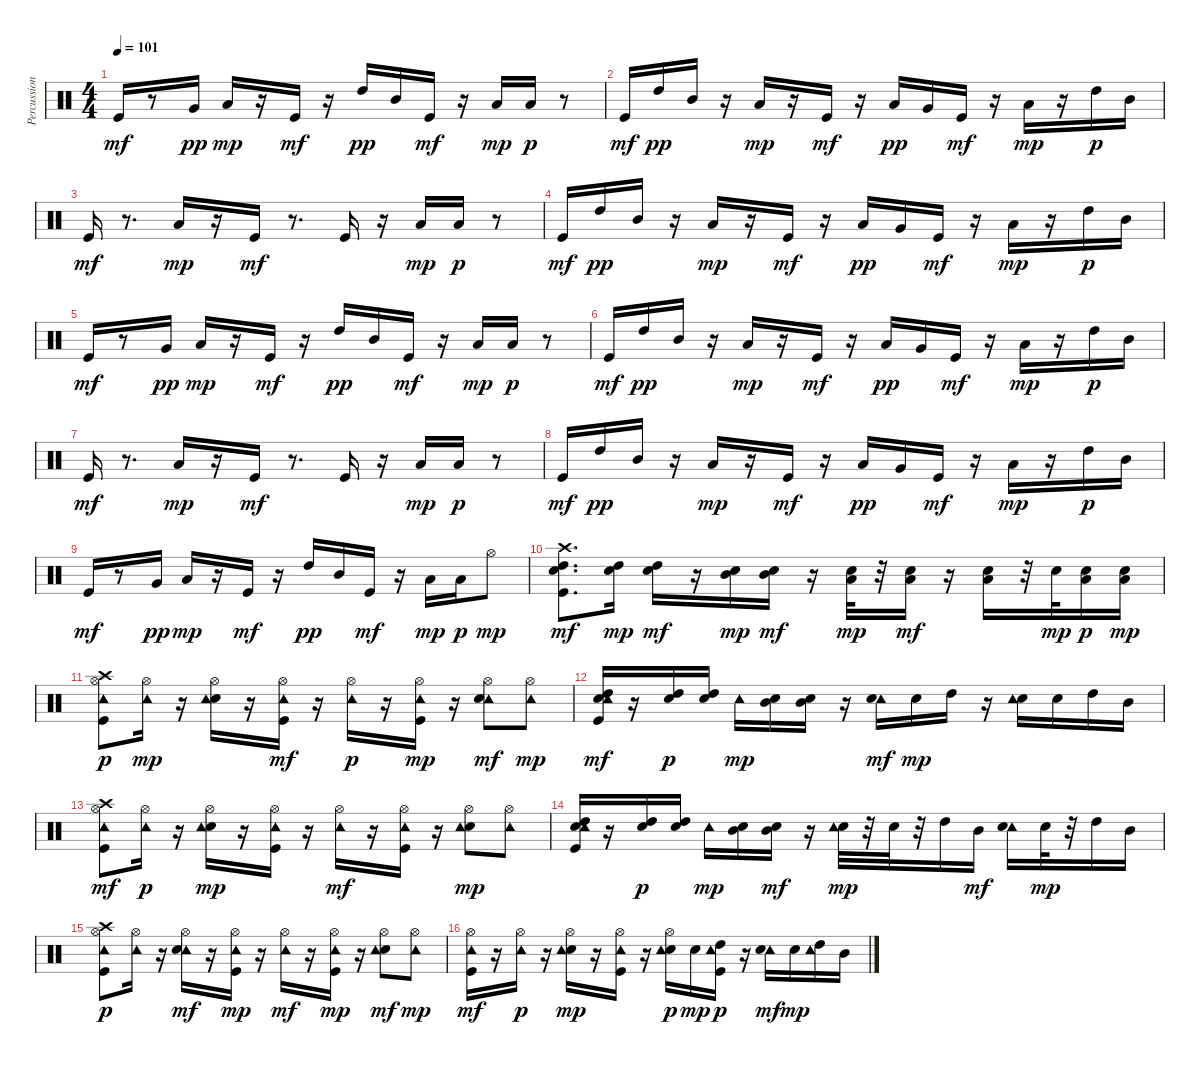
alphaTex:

\track ("Percussion" "Percussion") {instrument percussion}
\staff {score}
\articulation defaults
\ts (4 4)
\tempo 101
\clef neutral
\ks c "Kick (hit)".16{dy mf}
r.8 "Very Low Tom (hit)".16{dy pp} "Low Floor Tom (hit)".16{dy mp} r.16 "Kick (hit)".16{dy mf} r.16 "High Tom (hit)".16{dy pp} "Mid Tom (hit)".16 "Kick (hit)".16{dy mf} r.16 "Low Floor Tom (hit)".16{dy mp} "Low Floor Tom (hit)".16{dy p} r.8 |
"Kick (hit)".16{dy mf} "High Tom (hit)".16{dy pp} "Mid Tom (hit)".16 r.16 "Low Floor Tom (hit)".16{dy mp} r.16 "Kick (hit)".16{dy mf} r.16 "Low Tom (hit)".16{dy pp} "Very Low Tom (hit)".16 "Kick (hit)".16{dy mf} r.16 "Low Floor Tom (hit)".16{dy mp} r.16 "High Tom (hit)".16{dy p} "Mid Tom (hit)".16 |
"Kick (hit)".16{dy mf volume 9} r.8{d} "Low Floor Tom (hit)".16{dy mp} r.16 "Kick (hit)".16{dy mf} r.8{d} "Kick (hit)".16 r.16 "Low Floor Tom (hit)".16{dy mp} "Low Floor Tom (hit)".16{dy p} r.8 |
"Kick (hit)".16{dy mf} "High Tom (hit)".16{dy pp} "Mid Tom (hit)".16 r.16 "Low Floor Tom (hit)".16{dy mp} r.16 "Kick (hit)".16{dy mf} r.16 "Low Tom (hit)".16{dy pp} "Very Low Tom (hit)".16 "Kick (hit)".16{dy mf} r.16 "Low Floor Tom (hit)".16{dy mp} r.16 "High Tom (hit)".16{dy p} "Mid Tom (hit)".16 |
"Kick (hit)".16{dy mf} r.8 "Very Low Tom (hit)".16{dy pp} "Low Floor Tom (hit)".16{dy mp} r.16 "Kick (hit)".16{dy mf} r.16 "High Tom (hit)".16{dy pp} "Mid Tom (hit)".16 "Kick (hit)".16{dy mf} r.16 "Low Floor Tom (hit)".16{dy mp} "Low Floor Tom (hit)".16{dy p} r.8 |
"Kick (hit)".16{dy mf} "High Tom (hit)".16{dy pp} "Mid Tom (hit)".16 r.16 "Low Floor Tom (hit)".16{dy mp} r.16 "Kick (hit)".16{dy mf} r.16 "Low Tom (hit)".16{dy pp} "Very Low Tom (hit)".16 "Kick (hit)".16{dy mf} r.16 "Low Floor Tom (hit)".16{dy mp} r.16 "High Tom (hit)".16{dy p} "Mid Tom (hit)".16 |
"Kick (hit)".16{dy mf} r.8{d} "Low Floor Tom (hit)".16{dy mp} r.16 "Kick (hit)".16{dy mf} r.8{d} "Kick (hit)".16 r.16 "Low Floor Tom (hit)".16{dy mp} "Low Floor Tom (hit)".16{dy p} r.8 |
"Kick (hit)".16{dy mf} "High Tom (hit)".16{dy pp} "Mid Tom (hit)".16 r.16 "Low Floor Tom (hit)".16{dy mp} r.16 "Kick (hit)".16{dy mf} r.16 "Low Tom (hit)".16{dy pp} "Very Low Tom (hit)".16 "Kick (hit)".16{dy mf} r.16 "Low Floor Tom (hit)".16{dy mp} r.16 "High Tom (hit)".16{dy p} "Mid Tom (hit)".16 |
"Kick (hit)".16{dy mf} r.8 "Very Low Tom (hit)".16{dy pp} "Low Floor Tom (hit)".16{dy mp} r.16 "Kick (hit)".16{dy mf} r.16 "High Tom (hit)".16{dy pp} "Mid Tom (hit)".16 "Kick (hit)".16{dy mf} r.16 "Low Floor Tom (hit)".16{dy mp} "Low Floor Tom (hit)".16{dy p} "Hi-Hat (open)".8{dy mp volume 14} |
("Electric Snare (hit)" "High Tom (hit)" "Crash high (hit)" "Kick (hit)").8{d dy mf} ("Electric Snare (hit)" "High Tom (hit)").16{dy mp} ("High Tom (hit)" "Electric Snare (hit)").16{dy mf} r.16 ("Mid Tom (hit)" "Electric Snare (hit)").16{dy mp} ("Mid Tom (hit)" "Electric Snare (hit)").16{dy mf} r.16 ("Electric Snare (hit)" "Low Tom (hit)").32{dy mp} r.32 ("Low Tom (hit)" "Electric Snare (hit)").16{dy mf} r.16 ("Electric Snare (hit)" "Low Tom (hit)").16 r.32 "Electric Snare (hit)".32{dy mp} ("Electric Snare (hit)" "Low Tom (hit)").16{dy p} ("Electric Snare (hit)" "Low Tom (hit)").16{dy mp} |
("Kick (hit)" "Crash high (hit)" "Hi-Hat (open)" "Tambourine (hit)").8{dy p} ("Tambourine (hit)" "Hi-Hat (open)").16{dy mp} r.16 ("Electric Snare (hit)" "Hi-Hat (open)" "Tambourine (hit)").16 r.16 ("Hi-Hat (open)" "Tambourine (hit)" "Kick (hit)").16{dy mf} r.16 ("Hi-Hat (open)" "Tambourine (hit)").16{dy p} r.16 ("Tambourine (hit)" "Kick (hit)" "Hi-Hat (open)").16{dy mp} r.16 ("Tambourine (hit)" "Electric Snare (hit)" "Hi-Hat (open)").8{dy mf} ("Tambourine (hit)" "Hi-Hat (open)").8{dy mp} |
("Kick (hit)" "Electric Snare (hit)" "Tambourine (hit)" "High Tom (hit)").16{dy mf} r.16 ("High Tom (hit)" "Electric Snare (hit)").16{dy p} ("High Tom (hit)" "Electric Snare (hit)").16 "Tambourine (hit)".16{dy mp} ("Electric Snare (hit)" "Mid Tom (hit)").16 ("Mid Tom (hit)" "Electric Snare (hit)").16 r.16 ("Tambourine (hit)" "Electric Snare (hit)").16{dy mf} "Electric Snare (hit)".16{dy mp} "High Tom (hit)".16 r.16 ("Electric Snare (hit)" "Tambourine (hit)").16 "Electric Snare (hit)".16 "High Tom (hit)".16 "Mid Tom (hit)".16 |
("Crash high (hit)" "Tambourine (hit)" "Kick (hit)" "Hi-Hat (open)").8{dy mf} ("Hi-Hat (open)" "Tambourine (hit)").16{dy p} r.16 ("Hi-Hat (open)" "Electric Snare (hit)" "Tambourine (hit)").16{dy mp} r.16 ("Tambourine (hit)" "Kick (hit)" "Hi-Hat (open)").16 r.16 ("Tambourine (hit)" "Hi-Hat (open)").16{dy mf} r.16 ("Tambourine (hit)" "Hi-Hat (open)" "Kick (hit)").16 r.16 ("Electric Snare (hit)" "Hi-Hat (open)" "Tambourine (hit)").8{dy mp} ("Hi-Hat (open)" "Tambourine (hit)").8 |
("Electric Snare (hit)" "High Tom (hit)" "Kick (hit)" "Tambourine (hit)").16 r.16 ("High Tom (hit)" "Electric Snare (hit)").16{dy p} ("High Tom (hit)" "Electric Snare (hit)").16 "Tambourine (hit)".16{dy mp} ("Electric Snare (hit)" "Mid Tom (hit)").16 ("Electric Snare (hit)" "Mid Tom (hit)").16{dy mf} r.16 ("Electric Snare (hit)" "Tambourine (hit)").32{dy mp} r.32 "Electric Snare (hit)".32 r.32 "High Tom (hit)".16 "Mid Tom (hit)".16{dy mf} ("Tambourine (hit)" "Electric Snare (hit)").16 "Electric Snare (hit)".32{dy mp} r.32 "High Tom (hit)".16 "Mid Tom (hit)".16 |
("Crash high (hit)" "Kick (hit)" "Hi-Hat (open)" "Tambourine (hit)").8{dy p} ("Hi-Hat (open)" "Tambourine (hit)").16 r.16 ("Tambourine (hit)" "Electric Snare (hit)" "Hi-Hat (open)").16{dy mf} r.16 ("Kick (hit)" "Hi-Hat (open)" "Tambourine (hit)").16{dy mp} r.16 ("Tambourine (hit)" "Hi-Hat (open)").16{dy mf} r.16 ("Kick (hit)" "Tambourine (hit)" "Hi-Hat (open)").16{dy mp} r.16 ("Electric Snare (hit)" "Tambourine (hit)" "Hi-Hat (open)").8{dy mf} ("Tambourine (hit)" "Hi-Hat (open)").8{dy mp} |
("Tambourine (hit)" "Hi-Hat (open)" "Kick (hit)").16{dy mf} r.16 ("Hi-Hat (open)" "Tambourine (hit)").16{dy p} r.16 ("Electric Snare (hit)" "Hi-Hat (open)" "Tambourine (hit)").16{dy mp} r.16 ("Kick (hit)" "Tambourine (hit)" "Hi-Hat (open)").16 r.16 ("Electric Snare (hit)" "Hi-Hat (open)" "Tambourine (hit)").16{dy p} "Electric Snare (hit)".16{dy mp} ("High Tom (hit)" "Kick (hit)" "Tambourine (hit)").16{dy p} r.16 ("Tambourine (hit)" "Electric Snare (hit)").16{dy mf} "Electric Snare (hit)".16{dy mp} ("High Tom (hit)" "Tambourine (hit)").16 "Mid Tom (hit)".16
